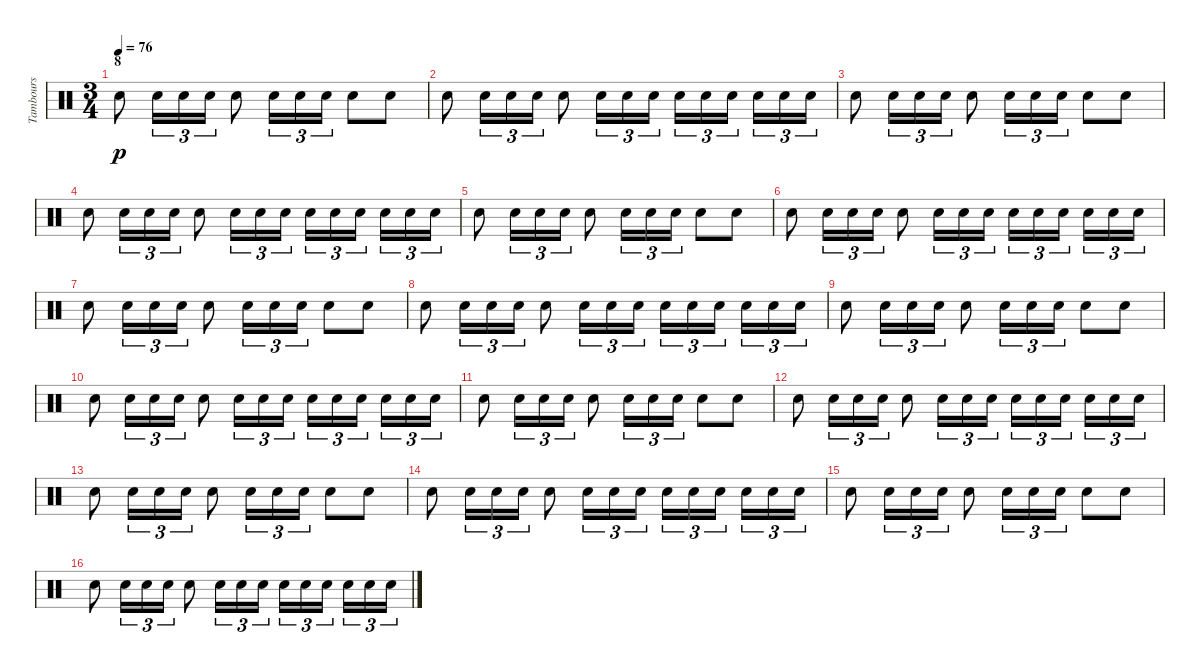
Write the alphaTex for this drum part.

\track ("Tambours" "Tambours") {instrument percussion}
\staff {score}
\articulation defaults
\ts (3 4)
\section ("" "8")
\tempo 76
\clef neutral
\ks c "Snare (hit) 2".8{dy p} "Snare (hit) 2".16{tu (3 2)} "Snare (hit) 2".16{tu (3 2)} "Snare (hit) 2".16{tu (3 2)} "Snare (hit) 2".8 "Snare (hit) 2".16{tu (3 2)} "Snare (hit) 2".16{tu (3 2)} "Snare (hit) 2".16{tu (3 2)} "Snare (hit) 2".8 "Snare (hit) 2".8
|
"Snare (hit) 2".8 "Snare (hit) 2".16{tu (3 2)} "Snare (hit) 2".16{tu (3 2)} "Snare (hit) 2".16{tu (3 2)} "Snare (hit) 2".8 "Snare (hit) 2".16{tu (3 2)} "Snare (hit) 2".16{tu (3 2)} "Snare (hit) 2".16{tu (3 2)} "Snare (hit) 2".16{tu (3 2)} "Snare (hit) 2".16{tu (3 2)} "Snare (hit) 2".16{tu (3 2) beam splitsecondary} "Snare (hit) 2".16{tu (3 2)} "Snare (hit) 2".16{tu (3 2)} "Snare (hit) 2".16{tu (3 2)} |
"Snare (hit) 2".8 "Snare (hit) 2".16{tu (3 2)} "Snare (hit) 2".16{tu (3 2)} "Snare (hit) 2".16{tu (3 2)} "Snare (hit) 2".8 "Snare (hit) 2".16{tu (3 2)} "Snare (hit) 2".16{tu (3 2)} "Snare (hit) 2".16{tu (3 2)} "Snare (hit) 2".8 "Snare (hit) 2".8 |
"Snare (hit) 2".8 "Snare (hit) 2".16{tu (3 2)} "Snare (hit) 2".16{tu (3 2)} "Snare (hit) 2".16{tu (3 2)} "Snare (hit) 2".8 "Snare (hit) 2".16{tu (3 2)} "Snare (hit) 2".16{tu (3 2)} "Snare (hit) 2".16{tu (3 2)} "Snare (hit) 2".16{tu (3 2)} "Snare (hit) 2".16{tu (3 2)} "Snare (hit) 2".16{tu (3 2) beam splitsecondary} "Snare (hit) 2".16{tu (3 2)} "Snare (hit) 2".16{tu (3 2)} "Snare (hit) 2".16{tu (3 2)} |
"Snare (hit) 2".8 "Snare (hit) 2".16{tu (3 2)} "Snare (hit) 2".16{tu (3 2)} "Snare (hit) 2".16{tu (3 2)} "Snare (hit) 2".8 "Snare (hit) 2".16{tu (3 2)} "Snare (hit) 2".16{tu (3 2)} "Snare (hit) 2".16{tu (3 2)} "Snare (hit) 2".8 "Snare (hit) 2".8 |
"Snare (hit) 2".8 "Snare (hit) 2".16{tu (3 2)} "Snare (hit) 2".16{tu (3 2)} "Snare (hit) 2".16{tu (3 2)} "Snare (hit) 2".8 "Snare (hit) 2".16{tu (3 2)} "Snare (hit) 2".16{tu (3 2)} "Snare (hit) 2".16{tu (3 2)} "Snare (hit) 2".16{tu (3 2)} "Snare (hit) 2".16{tu (3 2)} "Snare (hit) 2".16{tu (3 2) beam splitsecondary} "Snare (hit) 2".16{tu (3 2)} "Snare (hit) 2".16{tu (3 2)} "Snare (hit) 2".16{tu (3 2)} |
"Snare (hit) 2".8 "Snare (hit) 2".16{tu (3 2)} "Snare (hit) 2".16{tu (3 2)} "Snare (hit) 2".16{tu (3 2)} "Snare (hit) 2".8 "Snare (hit) 2".16{tu (3 2)} "Snare (hit) 2".16{tu (3 2)} "Snare (hit) 2".16{tu (3 2)} "Snare (hit) 2".8 "Snare (hit) 2".8 |
"Snare (hit) 2".8 "Snare (hit) 2".16{tu (3 2)} "Snare (hit) 2".16{tu (3 2)} "Snare (hit) 2".16{tu (3 2)} "Snare (hit) 2".8 "Snare (hit) 2".16{tu (3 2)} "Snare (hit) 2".16{tu (3 2)} "Snare (hit) 2".16{tu (3 2)} "Snare (hit) 2".16{tu (3 2)} "Snare (hit) 2".16{tu (3 2)} "Snare (hit) 2".16{tu (3 2) beam splitsecondary} "Snare (hit) 2".16{tu (3 2)} "Snare (hit) 2".16{tu (3 2)} "Snare (hit) 2".16{tu (3 2)} |
"Snare (hit) 2".8 "Snare (hit) 2".16{tu (3 2)} "Snare (hit) 2".16{tu (3 2)} "Snare (hit) 2".16{tu (3 2)} "Snare (hit) 2".8 "Snare (hit) 2".16{tu (3 2)} "Snare (hit) 2".16{tu (3 2)} "Snare (hit) 2".16{tu (3 2)} "Snare (hit) 2".8 "Snare (hit) 2".8 |
"Snare (hit) 2".8 "Snare (hit) 2".16{tu (3 2)} "Snare (hit) 2".16{tu (3 2)} "Snare (hit) 2".16{tu (3 2)} "Snare (hit) 2".8 "Snare (hit) 2".16{tu (3 2)} "Snare (hit) 2".16{tu (3 2)} "Snare (hit) 2".16{tu (3 2)} "Snare (hit) 2".16{tu (3 2)} "Snare (hit) 2".16{tu (3 2)} "Snare (hit) 2".16{tu (3 2) beam splitsecondary} "Snare (hit) 2".16{tu (3 2)} "Snare (hit) 2".16{tu (3 2)} "Snare (hit) 2".16{tu (3 2)} |
"Snare (hit) 2".8 "Snare (hit) 2".16{tu (3 2)} "Snare (hit) 2".16{tu (3 2)} "Snare (hit) 2".16{tu (3 2)} "Snare (hit) 2".8 "Snare (hit) 2".16{tu (3 2)} "Snare (hit) 2".16{tu (3 2)} "Snare (hit) 2".16{tu (3 2)} "Snare (hit) 2".8 "Snare (hit) 2".8 |
"Snare (hit) 2".8 "Snare (hit) 2".16{tu (3 2)} "Snare (hit) 2".16{tu (3 2)} "Snare (hit) 2".16{tu (3 2)} "Snare (hit) 2".8 "Snare (hit) 2".16{tu (3 2)} "Snare (hit) 2".16{tu (3 2)} "Snare (hit) 2".16{tu (3 2)} "Snare (hit) 2".16{tu (3 2)} "Snare (hit) 2".16{tu (3 2)} "Snare (hit) 2".16{tu (3 2) beam splitsecondary} "Snare (hit) 2".16{tu (3 2)} "Snare (hit) 2".16{tu (3 2)} "Snare (hit) 2".16{tu (3 2)} |
"Snare (hit) 2".8 "Snare (hit) 2".16{tu (3 2)} "Snare (hit) 2".16{tu (3 2)} "Snare (hit) 2".16{tu (3 2)} "Snare (hit) 2".8 "Snare (hit) 2".16{tu (3 2)} "Snare (hit) 2".16{tu (3 2)} "Snare (hit) 2".16{tu (3 2)} "Snare (hit) 2".8 "Snare (hit) 2".8 |
"Snare (hit) 2".8 "Snare (hit) 2".16{tu (3 2)} "Snare (hit) 2".16{tu (3 2)} "Snare (hit) 2".16{tu (3 2)} "Snare (hit) 2".8 "Snare (hit) 2".16{tu (3 2)} "Snare (hit) 2".16{tu (3 2)} "Snare (hit) 2".16{tu (3 2)} "Snare (hit) 2".16{tu (3 2)} "Snare (hit) 2".16{tu (3 2)} "Snare (hit) 2".16{tu (3 2) beam splitsecondary} "Snare (hit) 2".16{tu (3 2)} "Snare (hit) 2".16{tu (3 2)} "Snare (hit) 2".16{tu (3 2)} |
"Snare (hit) 2".8 "Snare (hit) 2".16{tu (3 2)} "Snare (hit) 2".16{tu (3 2)} "Snare (hit) 2".16{tu (3 2)} "Snare (hit) 2".8 "Snare (hit) 2".16{tu (3 2)} "Snare (hit) 2".16{tu (3 2)} "Snare (hit) 2".16{tu (3 2)} "Snare (hit) 2".8 "Snare (hit) 2".8 |
"Snare (hit) 2".8 "Snare (hit) 2".16{tu (3 2)} "Snare (hit) 2".16{tu (3 2)} "Snare (hit) 2".16{tu (3 2)} "Snare (hit) 2".8 "Snare (hit) 2".16{tu (3 2)} "Snare (hit) 2".16{tu (3 2)} "Snare (hit) 2".16{tu (3 2)} "Snare (hit) 2".16{tu (3 2)} "Snare (hit) 2".16{tu (3 2)} "Snare (hit) 2".16{tu (3 2) beam splitsecondary} "Snare (hit) 2".16{tu (3 2)} "Snare (hit) 2".16{tu (3 2)} "Snare (hit) 2".16{tu (3 2)}
